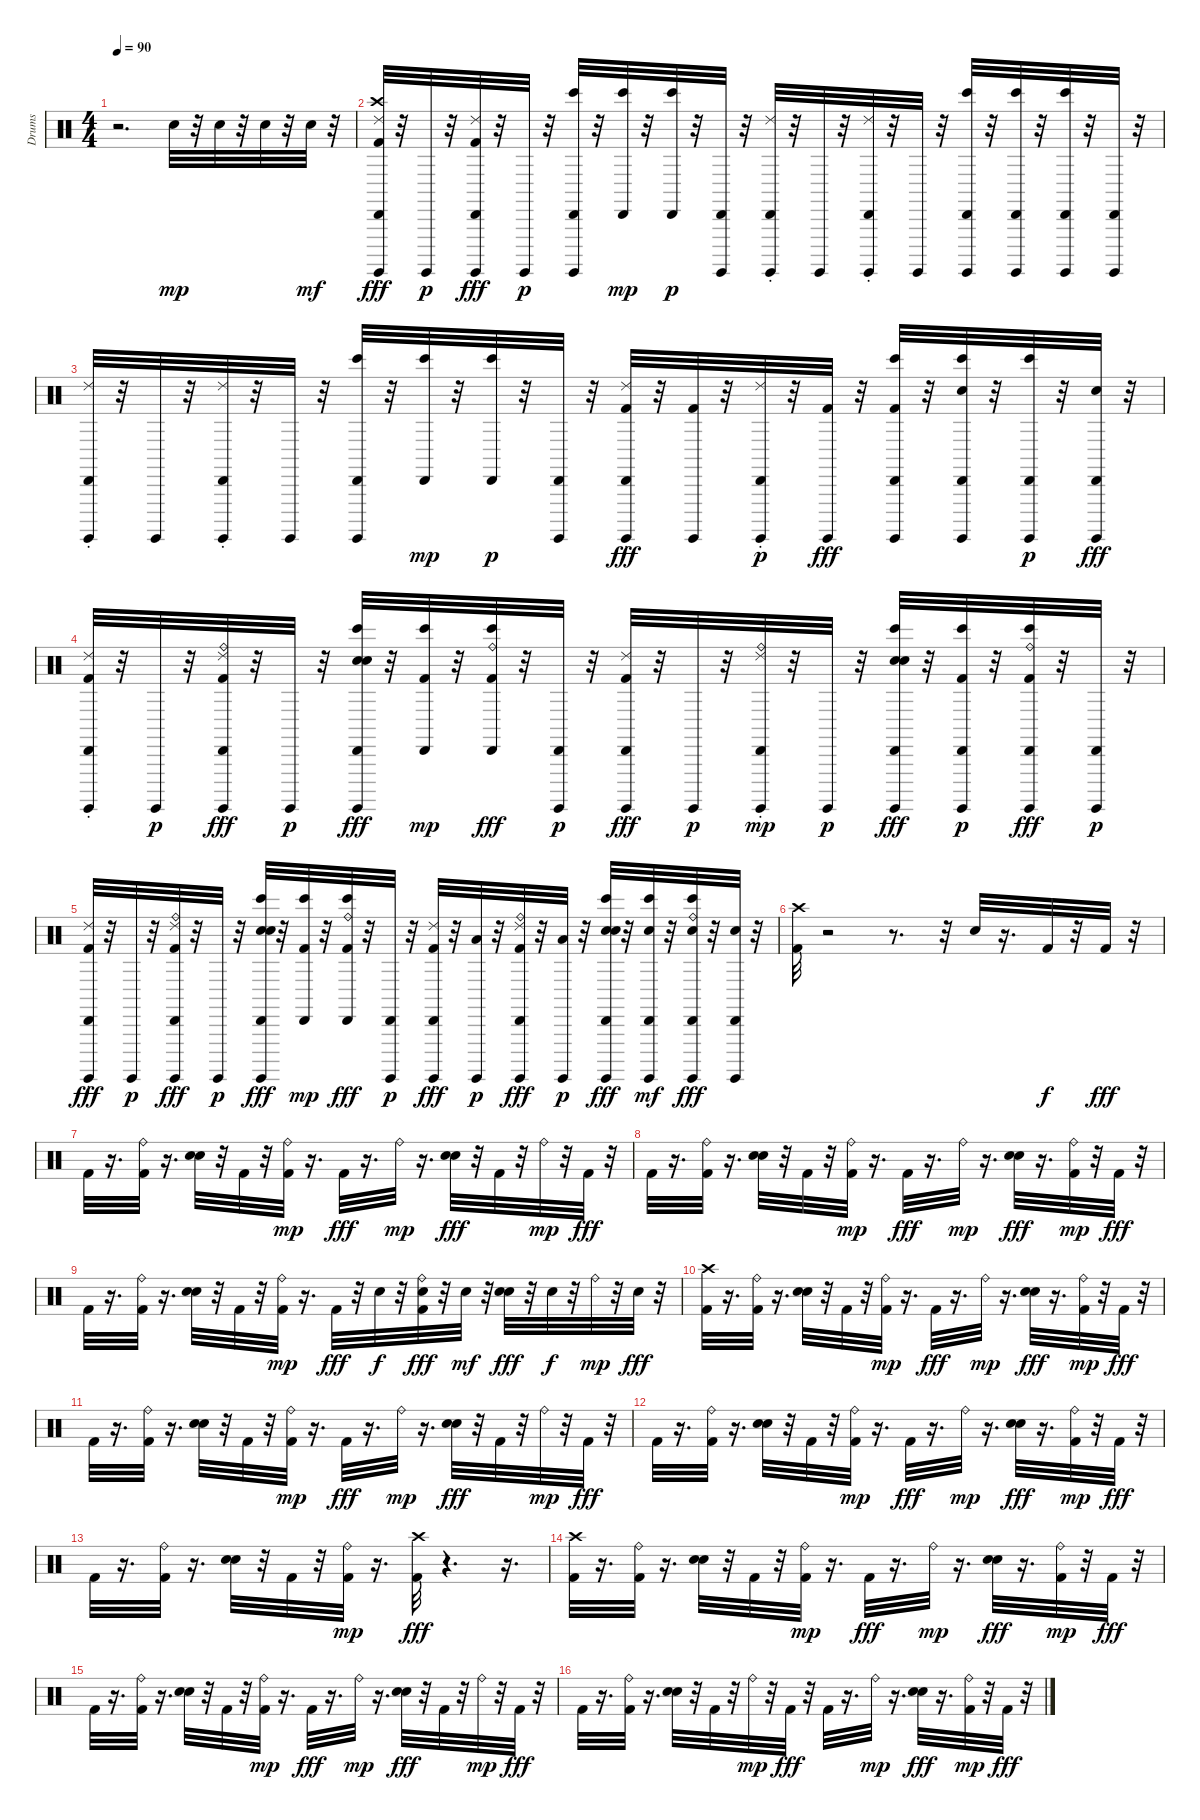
\track ("Drums" "Drums") {instrument percussion}
\staff {score}
\articulation defaults
\ts (4 4)
\tempo 90
\clef neutral
\ks c
r.2{d dy mp} "Electric Snare (hit)".32 r.32 "Electric Snare (hit)".32 r.32 "Electric Snare (hit)".32 r.32 "Electric Snare (hit)".32{dy mf} r.32 |
("Cabasa (hit)" "Ride (choke) 2" "Surdo (hit)" "Crash high (hit)" "Kick (hit) 2").32{dy fff} r.32 "Surdo (hit)".32{dy p} r.32 ("Cabasa (hit)" "Ride (choke) 2" "Surdo (hit)" "Kick (hit) 2").32{dy fff} r.32 "Surdo (hit)".32{dy p} r.32 ("Bongo High (hit)" "Cabasa (hit)" "Surdo (hit)").32 r.32 ("Bongo High (hit)" "Cabasa (hit)").32{dy mp} r.32 ("Bongo High (hit)" "Cabasa (hit)").32{dy p} r.32 ("Cabasa (hit)" "Surdo (hit)").32 r.32 ("Cabasa (hit)" "Ride (choke) 2" "Surdo (hit)").32 r.32 "Surdo (hit)".32 r.32 ("Cabasa (hit)" "Ride (choke) 2" "Surdo (hit)").32 r.32 "Surdo (hit)".32 r.32 ("Bongo High (hit)" "Cabasa (hit)" "Surdo (hit)").32 r.32 ("Bongo High (hit)" "Cabasa (hit)" "Surdo (hit)").32 r.32 ("Bongo High (hit)" "Cabasa (hit)" "Surdo (hit)").32 r.32 ("Cabasa (hit)" "Surdo (hit)").32 r.32 |
("Cabasa (hit)" "Ride (choke) 2" "Surdo (hit)").32 r.32 "Surdo (hit)".32 r.32 ("Cabasa (hit)" "Ride (choke) 2" "Surdo (hit)").32 r.32 "Surdo (hit)".32 r.32 ("Bongo High (hit)" "Cabasa (hit)" "Surdo (hit)").32 r.32 ("Bongo High (hit)" "Cabasa (hit)").32{dy mp} r.32 ("Bongo High (hit)" "Cabasa (hit)").32{dy p} r.32 ("Cabasa (hit)" "Surdo (hit)").32 r.32 ("Cabasa (hit)" "Ride (choke) 2" "Surdo (hit)" "Kick (hit) 2").32{dy fff} r.32 ("Surdo (hit)" "Kick (hit) 2").32 r.32 ("Cabasa (hit)" "Ride (choke) 2" "Surdo (hit)").32{dy p} r.32 ("Surdo (hit)" "Kick (hit) 2").32{dy fff} r.32 ("Bongo High (hit)" "Cabasa (hit)" "Surdo (hit)" "Kick (hit) 2").32 r.32 ("Bongo High (hit)" "Cabasa (hit)" "Surdo (hit)" "Electric Snare (hit)").32 r.32 ("Bongo High (hit)" "Cabasa (hit)" "Surdo (hit)").32{dy p} r.32 ("Cabasa (hit)" "Surdo (hit)" "Electric Snare (hit)").32{dy fff} r.32 |
("Cabasa (hit)" "Ride (choke) 2" "Surdo (hit)" "Kick (hit) 2").32 r.32 "Surdo (hit)".32{dy p} r.32 ("Cabasa (hit)" "Ride (choke) 2" "Surdo (hit)" "Ride (bell)" "Kick (hit) 2").32{dy fff} r.32 "Surdo (hit)".32{dy p} r.32 ("Bongo High (hit)" "Cabasa (hit)" "Surdo (hit)" "Hand Clap (hit)" "Electric Snare (hit)").32{dy fff} r.32 ("Bongo High (hit)" "Cabasa (hit)" "Kick (hit) 2").32{dy mp} r.32 ("Bongo High (hit)" "Cabasa (hit)" "Ride (bell)" "Kick (hit) 2").32{dy fff} r.32 ("Cabasa (hit)" "Surdo (hit)").32{dy p} r.32 ("Cabasa (hit)" "Ride (choke) 2" "Surdo (hit)" "Kick (hit) 2").32{dy fff} r.32 "Surdo (hit)".32{dy p} r.32 ("Cabasa (hit)" "Ride (choke) 2" "Surdo (hit)" "Ride (bell)").32{dy mp} r.32 "Surdo (hit)".32{dy p} r.32 ("Bongo High (hit)" "Cabasa (hit)" "Surdo (hit)" "Hand Clap (hit)" "Electric Snare (hit)").32{dy fff} r.32 ("Bongo High (hit)" "Cabasa (hit)" "Surdo (hit)" "Kick (hit) 2").32{dy p} r.32 ("Bongo High (hit)" "Cabasa (hit)" "Surdo (hit)" "Ride (bell)" "Kick (hit) 2").32{dy fff} r.32 ("Cabasa (hit)" "Surdo (hit)").32{dy p} r.32 |
("Cabasa (hit)" "Ride (choke) 2" "Surdo (hit)" "Kick (hit) 2").32{dy fff} r.32 "Surdo (hit)".32{dy p} r.32 ("Cabasa (hit)" "Ride (choke) 2" "Surdo (hit)" "Ride (bell)" "Kick (hit) 2").32{dy fff} r.32 "Surdo (hit)".32{dy p} r.32 ("Bongo High (hit)" "Cabasa (hit)" "Surdo (hit)" "Hand Clap (hit)" "Electric Snare (hit)").32{dy fff} r.32 ("Bongo High (hit)" "Cabasa (hit)" "Kick (hit) 2").32{dy mp} r.32 ("Bongo High (hit)" "Cabasa (hit)" "Ride (bell)" "Kick (hit) 2").32{dy fff} r.32 ("Cabasa (hit)" "Surdo (hit)").32{dy p} r.32 ("Cabasa (hit)" "Ride (choke) 2" "Surdo (hit)" "Kick (hit) 2").32{dy fff} r.32 ("Surdo (hit)" "Low Floor Tom (hit)").32{dy p} r.32 ("Cabasa (hit)" "Ride (choke) 2" "Surdo (hit)" "Ride (bell)" "Kick (hit) 2").32{dy fff} r.32 ("Surdo (hit)" "Low Tom (hit)").32{dy p} r.32 ("Bongo High (hit)" "Cabasa (hit)" "Surdo (hit)" "Hand Clap (hit)" "Electric Snare (hit)").32{dy fff} r.32 ("Bongo High (hit)" "Cabasa (hit)" "Surdo (hit)" "Electric Snare (hit)").32{dy mf} r.32 ("Bongo High (hit)" "Cabasa (hit)" "Surdo (hit)" "Ride (bell)" "Electric Snare (hit)").32{dy fff} r.32 ("Cabasa (hit)" "Surdo (hit)" "Electric Snare (hit)").32 r.32 |
("Crash high (hit)" "Kick (hit) 2").32 r.2 r.8{d} r.32 "Electric Snare (hit)".32 r.16{d} "Kick (hit) 2".32{dy f} r.32 "Kick (hit) 2".32{dy fff} r.32 |
"Kick (hit) 2".32 r.16{d} ("Ride (bell)" "Kick (hit) 2").32 r.16{d} ("Hand Clap (hit)" "Electric Snare (hit)").32 r.32 "Kick (hit) 2".32 r.32 ("Ride (bell)" "Kick (hit) 2").32{dy mp} r.16{d} "Kick (hit) 2".32{dy fff} r.16{d} "Ride (bell)".32{dy mp} r.16{d} ("Hand Clap (hit)" "Electric Snare (hit)").32{dy fff} r.32 "Kick (hit) 2".32 r.32 "Ride (bell)".32{dy mp} r.32 "Kick (hit) 2".32{dy fff} r.32 |
"Kick (hit) 2".32 r.16{d} ("Ride (bell)" "Kick (hit) 2").32 r.16{d} ("Hand Clap (hit)" "Electric Snare (hit)").32 r.32 "Kick (hit) 2".32 r.32 ("Ride (bell)" "Kick (hit) 2").32{dy mp} r.16{d} "Kick (hit) 2".32{dy fff} r.16{d} "Ride (bell)".32{dy mp} r.16{d} ("Hand Clap (hit)" "Electric Snare (hit)").32{dy fff} r.16{d} ("Ride (bell)" "Kick (hit) 2").32{dy mp} r.32 "Kick (hit) 2".32{dy fff} r.32 |
"Kick (hit) 2".32 r.16{d} ("Ride (bell)" "Kick (hit) 2").32 r.16{d} ("Hand Clap (hit)" "Electric Snare (hit)").32 r.32 "Kick (hit) 2".32 r.32 ("Ride (bell)" "Kick (hit) 2").32{dy mp} r.16{d} "Kick (hit) 2".32{dy fff} r.32 "Electric Snare (hit)".32{dy f} r.32 ("Ride (bell)" "Electric Snare (hit)" "Kick (hit) 2").32{dy fff} r.32 "Electric Snare (hit)".32{dy mf} r.32 ("Hand Clap (hit)" "Electric Snare (hit)").32{dy fff} r.32 "Electric Snare (hit)".32{dy f} r.32 "Ride (bell)".32{dy mp} r.32 "Electric Snare (hit)".32{dy fff} r.32 |
("Crash high (hit)" "Kick (hit) 2").32 r.16{d} ("Ride (bell)" "Kick (hit) 2").32 r.16{d} ("Hand Clap (hit)" "Electric Snare (hit)").32 r.32 "Kick (hit) 2".32 r.32 ("Ride (bell)" "Kick (hit) 2").32{dy mp} r.16{d} "Kick (hit) 2".32{dy fff} r.16{d} "Ride (bell)".32{dy mp} r.16{d} ("Hand Clap (hit)" "Electric Snare (hit)").32{dy fff} r.16{d} ("Ride (bell)" "Kick (hit) 2").32{dy mp} r.32 "Kick (hit) 2".32{dy fff} r.32 |
"Kick (hit) 2".32 r.16{d} ("Ride (bell)" "Kick (hit) 2").32 r.16{d} ("Hand Clap (hit)" "Electric Snare (hit)").32 r.32 "Kick (hit) 2".32 r.32 ("Ride (bell)" "Kick (hit) 2").32{dy mp} r.16{d} "Kick (hit) 2".32{dy fff} r.16{d} "Ride (bell)".32{dy mp} r.16{d} ("Hand Clap (hit)" "Electric Snare (hit)").32{dy fff} r.32 "Kick (hit) 2".32 r.32 "Ride (bell)".32{dy mp} r.32 "Kick (hit) 2".32{dy fff} r.32 |
"Kick (hit) 2".32 r.16{d} ("Ride (bell)" "Kick (hit) 2").32 r.16{d} ("Hand Clap (hit)" "Electric Snare (hit)").32 r.32 "Kick (hit) 2".32 r.32 ("Ride (bell)" "Kick (hit) 2").32{dy mp} r.16{d} "Kick (hit) 2".32{dy fff} r.16{d} "Ride (bell)".32{dy mp} r.16{d} ("Hand Clap (hit)" "Electric Snare (hit)").32{dy fff} r.16{d} ("Ride (bell)" "Kick (hit) 2").32{dy mp} r.32 "Kick (hit) 2".32{dy fff} r.32 |
"Kick (hit) 2".32 r.16{d} ("Ride (bell)" "Kick (hit) 2").32 r.16{d} ("Hand Clap (hit)" "Electric Snare (hit)").32 r.32 "Kick (hit) 2".32 r.32 ("Ride (bell)" "Kick (hit) 2").32{dy mp} r.16{d} ("Crash high (hit)" "Kick (hit) 2").32{dy fff} r.4{d} r.16{d} |
("Crash high (hit)" "Kick (hit) 2").32 r.16{d} ("Ride (bell)" "Kick (hit) 2").32 r.16{d} ("Hand Clap (hit)" "Electric Snare (hit)").32 r.32 "Kick (hit) 2".32 r.32 ("Ride (bell)" "Kick (hit) 2").32{dy mp} r.16{d} "Kick (hit) 2".32{dy fff} r.16{d} "Ride (bell)".32{dy mp} r.16{d} ("Hand Clap (hit)" "Electric Snare (hit)").32{dy fff} r.16{d} ("Ride (bell)" "Kick (hit) 2").32{dy mp} r.32 "Kick (hit) 2".32{dy fff} r.32 |
"Kick (hit) 2".32 r.16{d} ("Ride (bell)" "Kick (hit) 2").32 r.16{d} ("Hand Clap (hit)" "Electric Snare (hit)").32 r.32 "Kick (hit) 2".32 r.32 ("Ride (bell)" "Kick (hit) 2").32{dy mp} r.16{d} "Kick (hit) 2".32{dy fff} r.16{d} "Ride (bell)".32{dy mp} r.16{d} ("Hand Clap (hit)" "Electric Snare (hit)").32{dy fff} r.32 "Kick (hit) 2".32 r.32 "Ride (bell)".32{dy mp} r.32 "Kick (hit) 2".32{dy fff} r.32 |
"Kick (hit) 2".32 r.16{d} ("Ride (bell)" "Kick (hit) 2").32 r.16{d} ("Hand Clap (hit)" "Electric Snare (hit)").32 r.32 "Kick (hit) 2".32 r.32 "Ride (bell)".32{dy mp} r.32 "Kick (hit) 2".32{dy fff} r.32 "Kick (hit) 2".32 r.16{d} "Ride (bell)".32{dy mp} r.16{d} ("Hand Clap (hit)" "Electric Snare (hit)").32{dy fff} r.16{d} ("Ride (bell)" "Kick (hit) 2").32{dy mp} r.32 "Kick (hit) 2".32{dy fff} r.32
